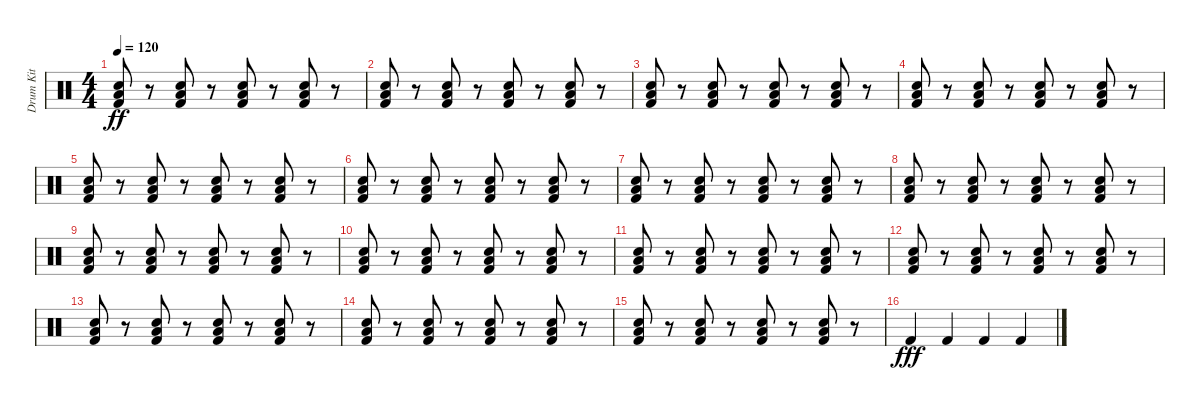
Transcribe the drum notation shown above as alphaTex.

\track ("Drum Kit" "Drum Kit") {instrument percussion}
\staff {score}
\articulation defaults
\ts (4 4)
\tempo 120
\clef neutral
\ks c
("Low Floor Tom (hit)" "Snare (hit) 2" "Kick (hit) 2").8{dy ff} r.8 ("Low Floor Tom (hit)" "Snare (hit) 2" "Kick (hit) 2").8 r.8 ("Low Floor Tom (hit)" "Snare (hit) 2" "Kick (hit) 2").8 r.8 ("Low Floor Tom (hit)" "Snare (hit) 2" "Kick (hit) 2").8 r.8 |
("Low Floor Tom (hit)" "Snare (hit) 2" "Kick (hit) 2").8 r.8 ("Low Floor Tom (hit)" "Snare (hit) 2" "Kick (hit) 2").8 r.8 ("Low Floor Tom (hit)" "Snare (hit) 2" "Kick (hit) 2").8 r.8 ("Low Floor Tom (hit)" "Snare (hit) 2" "Kick (hit) 2").8 r.8 |
("Low Floor Tom (hit)" "Snare (hit) 2" "Kick (hit) 2").8 r.8 ("Low Floor Tom (hit)" "Snare (hit) 2" "Kick (hit) 2").8 r.8 ("Low Floor Tom (hit)" "Snare (hit) 2" "Kick (hit) 2").8 r.8 ("Low Floor Tom (hit)" "Snare (hit) 2" "Kick (hit) 2").8 r.8 |
("Low Floor Tom (hit)" "Snare (hit) 2" "Kick (hit) 2").8 r.8 ("Low Floor Tom (hit)" "Snare (hit) 2" "Kick (hit) 2").8 r.8 ("Low Floor Tom (hit)" "Snare (hit) 2" "Kick (hit) 2").8 r.8 ("Low Floor Tom (hit)" "Snare (hit) 2" "Kick (hit) 2").8 r.8 |
("Low Floor Tom (hit)" "Snare (hit) 2" "Kick (hit) 2").8 r.8 ("Low Floor Tom (hit)" "Snare (hit) 2" "Kick (hit) 2").8 r.8 ("Low Floor Tom (hit)" "Snare (hit) 2" "Kick (hit) 2").8 r.8 ("Low Floor Tom (hit)" "Snare (hit) 2" "Kick (hit) 2").8 r.8 |
("Low Floor Tom (hit)" "Snare (hit) 2" "Kick (hit) 2").8 r.8 ("Low Floor Tom (hit)" "Snare (hit) 2" "Kick (hit) 2").8 r.8 ("Low Floor Tom (hit)" "Snare (hit) 2" "Kick (hit) 2").8 r.8 ("Low Floor Tom (hit)" "Snare (hit) 2" "Kick (hit) 2").8 r.8 |
("Low Floor Tom (hit)" "Snare (hit) 2" "Kick (hit) 2").8 r.8 ("Low Floor Tom (hit)" "Snare (hit) 2" "Kick (hit) 2").8 r.8 ("Low Floor Tom (hit)" "Snare (hit) 2" "Kick (hit) 2").8 r.8 ("Low Floor Tom (hit)" "Snare (hit) 2" "Kick (hit) 2").8 r.8 |
("Low Floor Tom (hit)" "Snare (hit) 2" "Kick (hit) 2").8 r.8 ("Low Floor Tom (hit)" "Snare (hit) 2" "Kick (hit) 2").8 r.8 ("Low Floor Tom (hit)" "Snare (hit) 2" "Kick (hit) 2").8 r.8 ("Low Floor Tom (hit)" "Snare (hit) 2" "Kick (hit) 2").8 r.8 |
("Low Floor Tom (hit)" "Snare (hit) 2" "Kick (hit) 2").8 r.8 ("Low Floor Tom (hit)" "Snare (hit) 2" "Kick (hit) 2").8 r.8 ("Low Floor Tom (hit)" "Snare (hit) 2" "Kick (hit) 2").8 r.8 ("Low Floor Tom (hit)" "Snare (hit) 2" "Kick (hit) 2").8 r.8 |
("Low Floor Tom (hit)" "Snare (hit) 2" "Kick (hit) 2").8 r.8 ("Low Floor Tom (hit)" "Snare (hit) 2" "Kick (hit) 2").8 r.8 ("Low Floor Tom (hit)" "Snare (hit) 2" "Kick (hit) 2").8 r.8 ("Low Floor Tom (hit)" "Snare (hit) 2" "Kick (hit) 2").8 r.8 |
("Low Floor Tom (hit)" "Snare (hit) 2" "Kick (hit) 2").8 r.8 ("Low Floor Tom (hit)" "Snare (hit) 2" "Kick (hit) 2").8 r.8 ("Low Floor Tom (hit)" "Snare (hit) 2" "Kick (hit) 2").8 r.8 ("Low Floor Tom (hit)" "Snare (hit) 2" "Kick (hit) 2").8 r.8 |
("Low Floor Tom (hit)" "Snare (hit) 2" "Kick (hit) 2").8 r.8 ("Low Floor Tom (hit)" "Snare (hit) 2" "Kick (hit) 2").8 r.8 ("Low Floor Tom (hit)" "Snare (hit) 2" "Kick (hit) 2").8 r.8 ("Low Floor Tom (hit)" "Snare (hit) 2" "Kick (hit) 2").8 r.8 |
("Low Floor Tom (hit)" "Snare (hit) 2" "Kick (hit) 2").8 r.8 ("Low Floor Tom (hit)" "Snare (hit) 2" "Kick (hit) 2").8 r.8 ("Low Floor Tom (hit)" "Snare (hit) 2" "Kick (hit) 2").8 r.8 ("Low Floor Tom (hit)" "Snare (hit) 2" "Kick (hit) 2").8 r.8 |
("Low Floor Tom (hit)" "Snare (hit) 2" "Kick (hit) 2").8 r.8 ("Low Floor Tom (hit)" "Snare (hit) 2" "Kick (hit) 2").8 r.8 ("Low Floor Tom (hit)" "Snare (hit) 2" "Kick (hit) 2").8 r.8 ("Low Floor Tom (hit)" "Snare (hit) 2" "Kick (hit) 2").8 r.8 |
("Low Floor Tom (hit)" "Snare (hit) 2" "Kick (hit) 2").8 r.8 ("Low Floor Tom (hit)" "Snare (hit) 2" "Kick (hit) 2").8 r.8 ("Low Floor Tom (hit)" "Snare (hit) 2" "Kick (hit) 2").8 r.8 ("Low Floor Tom (hit)" "Snare (hit) 2" "Kick (hit) 2").8 r.8 |
"Kick (hit) 2".4{dy fff} "Kick (hit) 2".4 "Kick (hit) 2".4 "Kick (hit) 2".4
